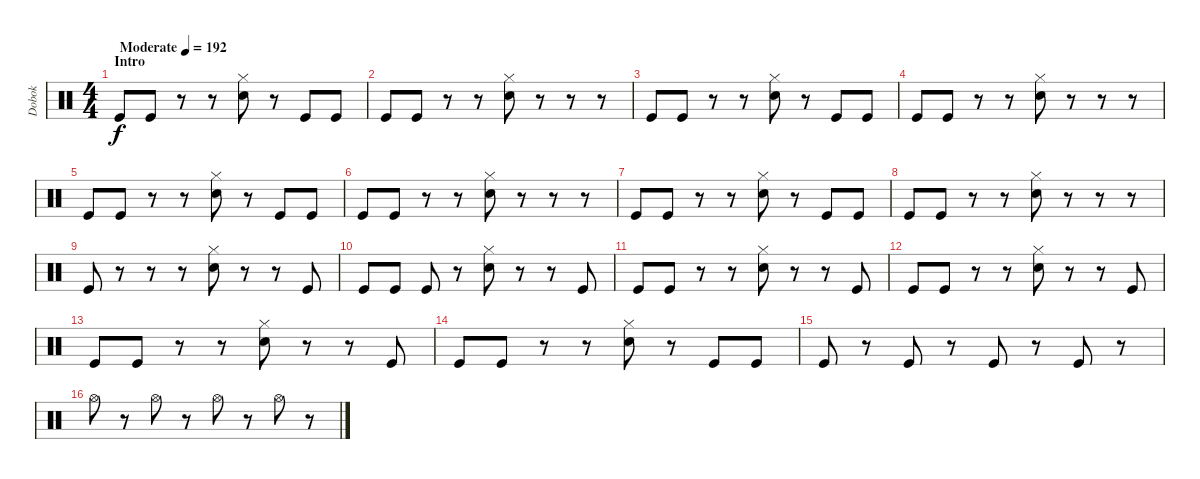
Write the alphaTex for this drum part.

\track ("Dobok" "Dobok") {instrument percussion}
\staff {score}
\articulation defaults
\ts (4 4)
\section ("" "Intro")
\tempo (192 "Moderate")
\clef neutral
\ks c "Kick (hit)".8{dy f} "Kick (hit)".8
r.8 r.8 ("Hi-Hat (closed)" "Electric Snare (hit)").8 r.8 "Kick (hit)".8 "Kick (hit)".8 |
"Kick (hit)".8 "Kick (hit)".8 r.8 r.8 ("Hi-Hat (closed)" "Electric Snare (hit)").8 r.8 r.8 r.8 |
"Kick (hit)".8 "Kick (hit)".8 r.8 r.8 ("Hi-Hat (closed)" "Electric Snare (hit)").8 r.8 "Kick (hit)".8 "Kick (hit)".8 |
"Kick (hit)".8 "Kick (hit)".8 r.8 r.8 ("Hi-Hat (closed)" "Electric Snare (hit)").8 r.8 r.8 r.8 |
"Kick (hit)".8 "Kick (hit)".8 r.8 r.8 ("Hi-Hat (closed)" "Electric Snare (hit)").8 r.8 "Kick (hit)".8 "Kick (hit)".8 |
"Kick (hit)".8 "Kick (hit)".8 r.8 r.8 ("Hi-Hat (closed)" "Electric Snare (hit)").8 r.8 r.8 r.8 |
"Kick (hit)".8 "Kick (hit)".8 r.8 r.8 ("Hi-Hat (closed)" "Electric Snare (hit)").8 r.8 "Kick (hit)".8 "Kick (hit)".8 |
"Kick (hit)".8 "Kick (hit)".8 r.8 r.8 ("Hi-Hat (closed)" "Electric Snare (hit)").8 r.8 r.8 r.8 |
"Kick (hit)".8 r.8 r.8 r.8 ("Hi-Hat (closed)" "Electric Snare (hit)").8 r.8 r.8 "Kick (hit)".8 |
"Kick (hit)".8 "Kick (hit)".8 "Kick (hit)".8 r.8 ("Hi-Hat (closed)" "Electric Snare (hit)").8 r.8 r.8 "Kick (hit)".8 |
"Kick (hit)".8 "Kick (hit)".8 r.8 r.8 ("Hi-Hat (closed)" "Electric Snare (hit)").8 r.8 r.8 "Kick (hit)".8 |
"Kick (hit)".8 "Kick (hit)".8 r.8 r.8 ("Hi-Hat (closed)" "Electric Snare (hit)").8 r.8 r.8 "Kick (hit)".8 |
"Kick (hit)".8 "Kick (hit)".8 r.8 r.8 ("Hi-Hat (closed)" "Electric Snare (hit)").8 r.8 r.8 "Kick (hit)".8 |
"Kick (hit)".8 "Kick (hit)".8 r.8 r.8 ("Hi-Hat (closed)" "Electric Snare (hit)").8 r.8 "Kick (hit)".8 "Kick (hit)".8 |
"Kick (hit)".8 r.8 "Kick (hit)".8 r.8 "Kick (hit)".8 r.8 "Kick (hit)".8 r.8 |
"Hi-Hat (open)".8 r.8 "Hi-Hat (open)".8 r.8 "Hi-Hat (open)".8 r.8 "Hi-Hat (open)".8 r.8
